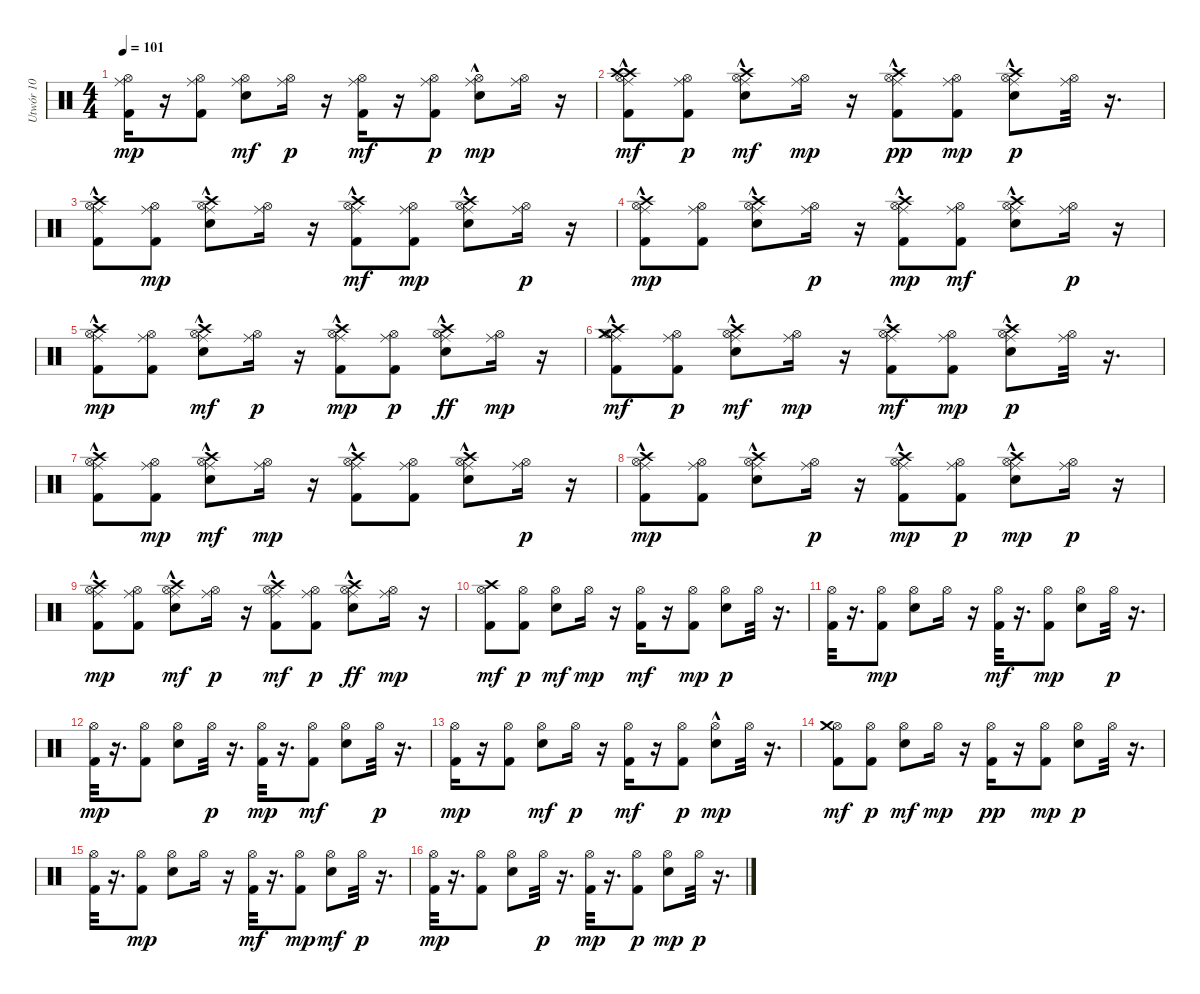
\track ("Utwór 10" "Utwór 10") {instrument percussion}
\staff {score}
\articulation defaults
\ts (4 4)
\tempo 101
\clef neutral
\ks c
("Kick (hit) 2" "Hi-Hat (open)" "Ride (middle)").16{dy mp} r.16 ("Kick (hit) 2" "Hi-Hat (open)" "Ride (middle)").8 ("Hi-Hat (open)" "Snare (hit) 2" "Ride (middle)").8{dy mf} ("Ride (middle)" "Hi-Hat (open)").16{dy p} r.16 ("Ride (middle)" "Hi-Hat (open)" "Kick (hit) 2").16{dy mf} r.16 ("Hi-Hat (open)" "Ride (middle)" "Kick (hit) 2").8{dy p} ("Hi-Hat (open)" "Ride (middle)" "Snare (hit) 2"{hac}).8{dy mp} ("Ride (middle)" "Hi-Hat (open)").16 r.16 |
("Kick (hit) 2" "Crash high (hit)"{hac} "Ride (middle)" "Hi-Hat (open)" "Crash high (hit)"{hac}).8{dy mf} ("Ride (middle)" "Kick (hit) 2" "Hi-Hat (open)").8{dy p} ("Crash high (hit)"{hac} "Hi-Hat (open)" "Ride (middle)" "Snare (hit) 2").8{dy mf} ("Ride (middle)" "Hi-Hat (open)").16{dy mp} r.16 ("Kick (hit) 2" "Ride (middle)" "Crash high (hit)"{hac} "Hi-Hat (open)").8{dy pp} ("Hi-Hat (open)" "Kick (hit) 2" "Ride (middle)").8{dy mp} ("Crash high (hit)"{hac} "Ride (middle)" "Snare (hit) 2" "Hi-Hat (open)").8{dy p} ("Ride (middle)" "Hi-Hat (open)").32 r.16{d} |
("Crash high (hit)"{hac} "Hi-Hat (open)" "Kick (hit) 2" "Ride (middle)").8 ("Hi-Hat (open)" "Ride (middle)" "Kick (hit) 2").8{dy mp} ("Snare (hit) 2" "Hi-Hat (open)" "Ride (middle)" "Crash high (hit)"{hac}).8 ("Hi-Hat (open)" "Ride (middle)").16 r.16 ("Crash high (hit)"{hac} "Hi-Hat (open)" "Kick (hit) 2" "Ride (middle)").8{dy mf} ("Ride (middle)" "Hi-Hat (open)" "Kick (hit) 2").8{dy mp} ("Crash high (hit)"{hac} "Snare (hit) 2" "Hi-Hat (open)" "Ride (middle)").8 ("Hi-Hat (open)" "Ride (middle)").16{dy p} r.16 |
("Ride (middle)" "Hi-Hat (open)" "Kick (hit) 2" "Crash high (hit)"{hac}).8{dy mp} ("Hi-Hat (open)" "Ride (middle)" "Kick (hit) 2").8 ("Crash high (hit)"{hac} "Ride (middle)" "Snare (hit) 2" "Hi-Hat (open)").8 ("Ride (middle)" "Hi-Hat (open)").16{dy p} r.16 ("Kick (hit) 2" "Ride (middle)" "Crash high (hit)"{hac} "Hi-Hat (open)").8{dy mp} ("Ride (middle)" "Hi-Hat (open)" "Kick (hit) 2").8{dy mf} ("Crash high (hit)"{hac} "Ride (middle)" "Hi-Hat (open)" "Snare (hit) 2").8 ("Ride (middle)" "Hi-Hat (open)").16{dy p} r.16 |
("Ride (middle)" "Hi-Hat (open)" "Kick (hit) 2" "Crash high (hit)"{hac}).8{dy mp} ("Kick (hit) 2" "Hi-Hat (open)" "Ride (middle)").8 ("Hi-Hat (open)" "Crash high (hit)"{hac} "Ride (middle)" "Snare (hit) 2").8{dy mf} ("Hi-Hat (open)" "Ride (middle)").16{dy p} r.16 ("Kick (hit) 2" "Hi-Hat (open)" "Crash high (hit)"{hac} "Ride (middle)").8{dy mp} ("Kick (hit) 2" "Hi-Hat (open)" "Ride (middle)").8{dy p} ("Ride (middle)" "Hi-Hat (open)" "Crash high (hit)"{hac} "Snare (hit) 2"{hac}).8{dy ff} ("Ride (middle)" "Hi-Hat (open)").16{dy mp} r.16 |
("Hi-Hat (open)" "Crash medium (hit)" "Ride (middle)" "Crash high (hit)"{hac} "Kick (hit) 2").8{dy mf} ("Ride (middle)" "Hi-Hat (open)" "Kick (hit) 2").8{dy p} ("Ride (middle)" "Snare (hit) 2" "Hi-Hat (open)" "Crash high (hit)"{hac}).8{dy mf} ("Hi-Hat (open)" "Ride (middle)").16{dy mp} r.16 ("Hi-Hat (open)" "Crash high (hit)"{hac} "Ride (middle)" "Kick (hit) 2").8{dy mf} ("Hi-Hat (open)" "Ride (middle)" "Kick (hit) 2").8{dy mp} ("Hi-Hat (open)" "Crash high (hit)"{hac} "Ride (middle)" "Snare (hit) 2").8{dy p} ("Ride (middle)" "Hi-Hat (open)").32 r.16{d} |
("Ride (middle)" "Kick (hit) 2" "Hi-Hat (open)" "Crash high (hit)"{hac}).8 ("Hi-Hat (open)" "Ride (middle)" "Kick (hit) 2").8{dy mp} ("Ride (middle)" "Hi-Hat (open)" "Snare (hit) 2" "Crash high (hit)"{hac}).8{dy mf} ("Hi-Hat (open)" "Ride (middle)").16{dy mp} r.16 ("Crash high (hit)"{hac} "Ride (middle)" "Kick (hit) 2" "Hi-Hat (open)").8 ("Ride (middle)" "Kick (hit) 2" "Hi-Hat (open)").8 ("Snare (hit) 2" "Ride (middle)" "Crash high (hit)"{hac} "Hi-Hat (open)").8 ("Ride (middle)" "Hi-Hat (open)").16{dy p} r.16 |
("Kick (hit) 2" "Hi-Hat (open)" "Crash high (hit)"{hac} "Ride (middle)").8{dy mp} ("Hi-Hat (open)" "Kick (hit) 2" "Ride (middle)").8 ("Hi-Hat (open)" "Crash high (hit)"{hac} "Snare (hit) 2" "Ride (middle)").8 ("Hi-Hat (open)" "Ride (middle)").16{dy p} r.16 ("Crash high (hit)"{hac} "Ride (middle)" "Hi-Hat (open)" "Kick (hit) 2").8{dy mp} ("Ride (middle)" "Kick (hit) 2" "Hi-Hat (open)").8{dy p} ("Crash high (hit)"{hac} "Ride (middle)" "Snare (hit) 2" "Hi-Hat (open)").8{dy mp} ("Hi-Hat (open)" "Ride (middle)").16{dy p} r.16 |
("Kick (hit) 2" "Hi-Hat (open)" "Crash high (hit)"{hac} "Ride (middle)").8{dy mp} ("Hi-Hat (open)" "Ride (middle)" "Kick (hit) 2").8 ("Ride (middle)" "Hi-Hat (open)" "Snare (hit) 2" "Crash high (hit)"{hac}).8{dy mf} ("Hi-Hat (open)" "Ride (middle)").16{dy p} r.16 ("Ride (middle)" "Crash high (hit)"{hac} "Hi-Hat (open)" "Kick (hit) 2").8{dy mf} ("Kick (hit) 2" "Ride (middle)" "Hi-Hat (open)").8{dy p} ("Snare (hit) 2"{hac} "Hi-Hat (open)" "Crash high (hit)"{hac} "Ride (middle)").8{dy ff} ("Hi-Hat (open)" "Ride (middle)").16{dy mp} r.16 |
("Crash high (hit)" "Hi-Hat (open)" "Kick (hit) 2").8{dy mf} ("Kick (hit) 2" "Hi-Hat (open)").8{dy p} ("Hi-Hat (open)" "Snare (hit) 2").8{dy mf} "Hi-Hat (open)".16{dy mp} r.16 ("Hi-Hat (open)" "Kick (hit) 2").16{dy mf} r.16 ("Kick (hit) 2" "Hi-Hat (open)").8{dy mp} ("Hi-Hat (open)" "Snare (hit) 2").8{dy p} "Hi-Hat (open)".32 r.16{d} |
("Hi-Hat (open)" "Kick (hit) 2").32 r.16{d} ("Hi-Hat (open)" "Kick (hit) 2").8{dy mp} ("Snare (hit) 2" "Hi-Hat (open)").8 "Hi-Hat (open)".16 r.16 ("Hi-Hat (open)" "Kick (hit) 2").32{dy mf} r.16{d} ("Hi-Hat (open)" "Kick (hit) 2").8{dy mp} ("Snare (hit) 2" "Hi-Hat (open)").8 "Hi-Hat (open)".32{dy p} r.16{d} |
("Hi-Hat (open)" "Kick (hit) 2").32{dy mp} r.16{d} ("Kick (hit) 2" "Hi-Hat (open)").8 ("Hi-Hat (open)" "Snare (hit) 2").8 "Hi-Hat (open)".32{dy p} r.16{d} ("Hi-Hat (open)" "Kick (hit) 2").32{dy mp} r.16{d} ("Hi-Hat (open)" "Kick (hit) 2").8{dy mf} ("Hi-Hat (open)" "Snare (hit) 2").8 "Hi-Hat (open)".32{dy p} r.16{d} |
("Hi-Hat (open)" "Kick (hit) 2").16{dy mp} r.16 ("Kick (hit) 2" "Hi-Hat (open)").8 ("Hi-Hat (open)" "Snare (hit) 2").8{dy mf} "Hi-Hat (open)".16{dy p} r.16 ("Hi-Hat (open)" "Kick (hit) 2").16{dy mf} r.16 ("Kick (hit) 2" "Hi-Hat (open)").8{dy p} ("Hi-Hat (open)" "Snare (hit) 2"{hac}).8{dy mp} "Hi-Hat (open)".32 r.16{d} |
("Hi-Hat (open)" "Kick (hit) 2" "Crash medium (hit)").8{dy mf} ("Kick (hit) 2" "Hi-Hat (open)").8{dy p} ("Hi-Hat (open)" "Snare (hit) 2").8{dy mf} "Hi-Hat (open)".16{dy mp} r.16 ("Kick (hit) 2" "Hi-Hat (open)").16{dy pp} r.16 ("Hi-Hat (open)" "Kick (hit) 2").8{dy mp} ("Hi-Hat (open)" "Snare (hit) 2").8{dy p} "Hi-Hat (open)".32 r.16{d} |
("Kick (hit) 2" "Hi-Hat (open)").32 r.16{d} ("Kick (hit) 2" "Hi-Hat (open)").8{dy mp} ("Snare (hit) 2" "Hi-Hat (open)").8 "Hi-Hat (open)".16 r.16 ("Hi-Hat (open)" "Kick (hit) 2").32{dy mf} r.16{d} ("Kick (hit) 2" "Hi-Hat (open)").8{dy mp} ("Hi-Hat (open)" "Snare (hit) 2").8{dy mf} "Hi-Hat (open)".32{dy p} r.16{d} |
("Hi-Hat (open)" "Kick (hit) 2").32{dy mp} r.16{d} ("Kick (hit) 2" "Hi-Hat (open)").8 ("Snare (hit) 2" "Hi-Hat (open)").8 "Hi-Hat (open)".32{dy p} r.16{d} ("Hi-Hat (open)" "Kick (hit) 2").32{dy mp} r.16{d} ("Kick (hit) 2" "Hi-Hat (open)").8{dy p} ("Snare (hit) 2" "Hi-Hat (open)").8{dy mp} "Hi-Hat (open)".32{dy p} r.16{d}
